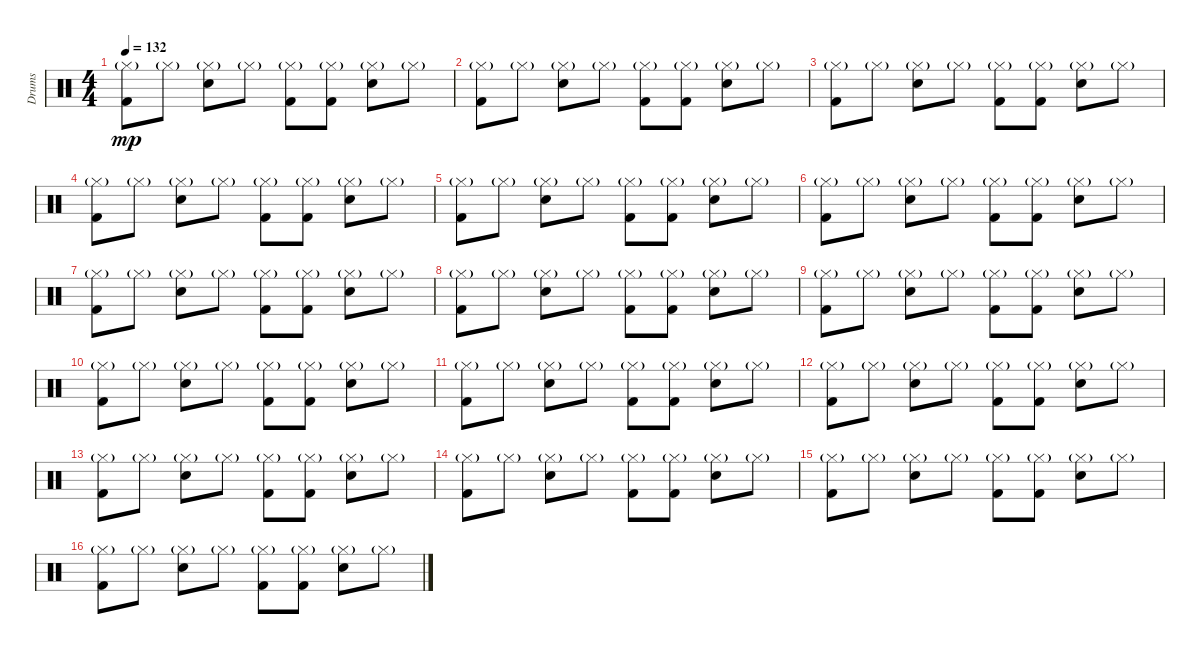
\track ("Drums" "Drums") {instrument percussion}
\staff {score}
\articulation defaults
\ts (4 4)
\tempo 132
\clef neutral
\ks c
("Hi-Hat (closed)"{g} "Kick (hit) 2").8{dy mp} "Hi-Hat (closed)"{g}.8 ("Hi-Hat (closed)"{g} "Snare (hit) 2").8 "Hi-Hat (closed)"{g}.8 ("Hi-Hat (closed)"{g} "Kick (hit) 2").8 ("Hi-Hat (closed)"{g} "Kick (hit) 2").8 ("Hi-Hat (closed)"{g} "Snare (hit) 2").8 "Hi-Hat (closed)"{g}.8 |
("Hi-Hat (closed)"{g} "Kick (hit) 2").8 "Hi-Hat (closed)"{g}.8 ("Hi-Hat (closed)"{g} "Snare (hit) 2").8 "Hi-Hat (closed)"{g}.8 ("Hi-Hat (closed)"{g} "Kick (hit) 2").8 ("Hi-Hat (closed)"{g} "Kick (hit) 2").8 ("Hi-Hat (closed)"{g} "Snare (hit) 2").8 "Hi-Hat (closed)"{g}.8 |
("Hi-Hat (closed)"{g} "Kick (hit) 2").8 "Hi-Hat (closed)"{g}.8 ("Hi-Hat (closed)"{g} "Snare (hit) 2").8 "Hi-Hat (closed)"{g}.8 ("Hi-Hat (closed)"{g} "Kick (hit) 2").8 ("Hi-Hat (closed)"{g} "Kick (hit) 2").8 ("Hi-Hat (closed)"{g} "Snare (hit) 2").8 "Hi-Hat (closed)"{g}.8 |
("Hi-Hat (closed)"{g} "Kick (hit) 2").8 "Hi-Hat (closed)"{g}.8 ("Hi-Hat (closed)"{g} "Snare (hit) 2").8 "Hi-Hat (closed)"{g}.8 ("Hi-Hat (closed)"{g} "Kick (hit) 2").8 ("Hi-Hat (closed)"{g} "Kick (hit) 2").8 ("Hi-Hat (closed)"{g} "Snare (hit) 2").8 "Hi-Hat (closed)"{g}.8 |
("Hi-Hat (closed)"{g} "Kick (hit) 2").8 "Hi-Hat (closed)"{g}.8 ("Hi-Hat (closed)"{g} "Snare (hit) 2").8 "Hi-Hat (closed)"{g}.8 ("Hi-Hat (closed)"{g} "Kick (hit) 2").8 ("Hi-Hat (closed)"{g} "Kick (hit) 2").8 ("Hi-Hat (closed)"{g} "Snare (hit) 2").8 "Hi-Hat (closed)"{g}.8 |
("Hi-Hat (closed)"{g} "Kick (hit) 2").8 "Hi-Hat (closed)"{g}.8 ("Hi-Hat (closed)"{g} "Snare (hit) 2").8 "Hi-Hat (closed)"{g}.8 ("Hi-Hat (closed)"{g} "Kick (hit) 2").8 ("Hi-Hat (closed)"{g} "Kick (hit) 2").8 ("Hi-Hat (closed)"{g} "Snare (hit) 2").8 "Hi-Hat (closed)"{g}.8 |
("Hi-Hat (closed)"{g} "Kick (hit) 2").8 "Hi-Hat (closed)"{g}.8 ("Hi-Hat (closed)"{g} "Snare (hit) 2").8 "Hi-Hat (closed)"{g}.8 ("Hi-Hat (closed)"{g} "Kick (hit) 2").8 ("Hi-Hat (closed)"{g} "Kick (hit) 2").8 ("Hi-Hat (closed)"{g} "Snare (hit) 2").8 "Hi-Hat (closed)"{g}.8 |
("Hi-Hat (closed)"{g} "Kick (hit) 2").8 "Hi-Hat (closed)"{g}.8 ("Hi-Hat (closed)"{g} "Snare (hit) 2").8 "Hi-Hat (closed)"{g}.8 ("Hi-Hat (closed)"{g} "Kick (hit) 2").8 ("Hi-Hat (closed)"{g} "Kick (hit) 2").8 ("Hi-Hat (closed)"{g} "Snare (hit) 2").8 "Hi-Hat (closed)"{g}.8 |
("Hi-Hat (closed)"{g} "Kick (hit) 2").8 "Hi-Hat (closed)"{g}.8 ("Hi-Hat (closed)"{g} "Snare (hit) 2").8 "Hi-Hat (closed)"{g}.8 ("Hi-Hat (closed)"{g} "Kick (hit) 2").8 ("Hi-Hat (closed)"{g} "Kick (hit) 2").8 ("Hi-Hat (closed)"{g} "Snare (hit) 2").8 "Hi-Hat (closed)"{g}.8 |
("Hi-Hat (closed)"{g} "Kick (hit) 2").8 "Hi-Hat (closed)"{g}.8 ("Hi-Hat (closed)"{g} "Snare (hit) 2").8 "Hi-Hat (closed)"{g}.8 ("Hi-Hat (closed)"{g} "Kick (hit) 2").8 ("Hi-Hat (closed)"{g} "Kick (hit) 2").8 ("Hi-Hat (closed)"{g} "Snare (hit) 2").8 "Hi-Hat (closed)"{g}.8 |
("Hi-Hat (closed)"{g} "Kick (hit) 2").8 "Hi-Hat (closed)"{g}.8 ("Hi-Hat (closed)"{g} "Snare (hit) 2").8 "Hi-Hat (closed)"{g}.8 ("Hi-Hat (closed)"{g} "Kick (hit) 2").8 ("Hi-Hat (closed)"{g} "Kick (hit) 2").8 ("Hi-Hat (closed)"{g} "Snare (hit) 2").8 "Hi-Hat (closed)"{g}.8 |
("Hi-Hat (closed)"{g} "Kick (hit) 2").8 "Hi-Hat (closed)"{g}.8 ("Hi-Hat (closed)"{g} "Snare (hit) 2").8 "Hi-Hat (closed)"{g}.8 ("Hi-Hat (closed)"{g} "Kick (hit) 2").8 ("Hi-Hat (closed)"{g} "Kick (hit) 2").8 ("Hi-Hat (closed)"{g} "Snare (hit) 2").8 "Hi-Hat (closed)"{g}.8 |
("Hi-Hat (closed)"{g} "Kick (hit) 2").8 "Hi-Hat (closed)"{g}.8 ("Hi-Hat (closed)"{g} "Snare (hit) 2").8 "Hi-Hat (closed)"{g}.8 ("Hi-Hat (closed)"{g} "Kick (hit) 2").8 ("Hi-Hat (closed)"{g} "Kick (hit) 2").8 ("Hi-Hat (closed)"{g} "Snare (hit) 2").8 "Hi-Hat (closed)"{g}.8 |
("Hi-Hat (closed)"{g} "Kick (hit) 2").8 "Hi-Hat (closed)"{g}.8 ("Hi-Hat (closed)"{g} "Snare (hit) 2").8 "Hi-Hat (closed)"{g}.8 ("Hi-Hat (closed)"{g} "Kick (hit) 2").8 ("Hi-Hat (closed)"{g} "Kick (hit) 2").8 ("Hi-Hat (closed)"{g} "Snare (hit) 2").8 "Hi-Hat (closed)"{g}.8 |
("Hi-Hat (closed)"{g} "Kick (hit) 2").8 "Hi-Hat (closed)"{g}.8 ("Hi-Hat (closed)"{g} "Snare (hit) 2").8 "Hi-Hat (closed)"{g}.8 ("Hi-Hat (closed)"{g} "Kick (hit) 2").8 ("Hi-Hat (closed)"{g} "Kick (hit) 2").8 ("Hi-Hat (closed)"{g} "Snare (hit) 2").8 "Hi-Hat (closed)"{g}.8 |
("Hi-Hat (closed)"{g} "Kick (hit) 2").8 "Hi-Hat (closed)"{g}.8 ("Hi-Hat (closed)"{g} "Snare (hit) 2").8 "Hi-Hat (closed)"{g}.8 ("Hi-Hat (closed)"{g} "Kick (hit) 2").8 ("Hi-Hat (closed)"{g} "Kick (hit) 2").8 ("Hi-Hat (closed)"{g} "Snare (hit) 2").8 "Hi-Hat (closed)"{g}.8
